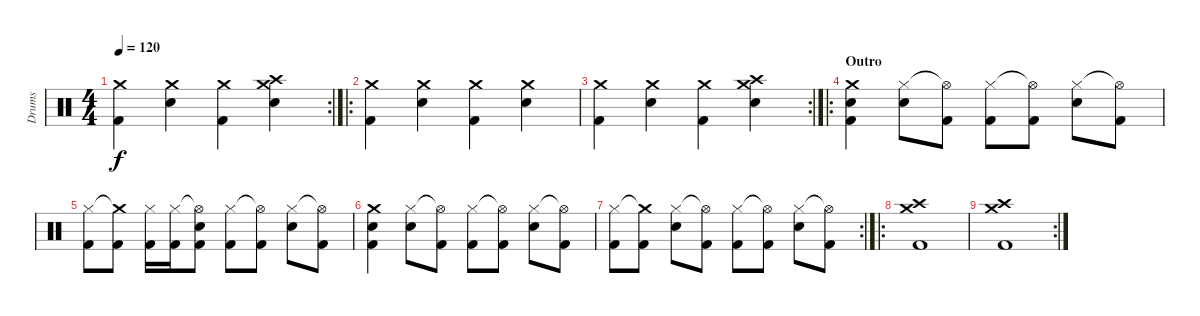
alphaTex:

\track ("Drums" "Drums") {instrument percussion}
\staff {score}
\articulation defaults
\rc 2
\ts (4 4)
\tempo 120
\clef neutral
\ks c
("Crash medium (hit)" "Kick (hit) 2").4{dy f} ("Crash medium (hit)" "Snare (hit) 2").4 ("Crash medium (hit)" "Kick (hit) 2").4 ("Crash high (hit)" "Crash medium (hit)" "Snare (hit) 2").4 |
\ro
("Crash medium (hit)" "Kick (hit) 2").4 ("Crash medium (hit)" "Snare (hit) 2").4 ("Crash medium (hit)" "Kick (hit) 2").4 ("Crash medium (hit)" "Snare (hit) 2").4 |
\rc 2
("Crash medium (hit)" "Kick (hit) 2").4 ("Crash medium (hit)" "Snare (hit) 2").4 ("Crash medium (hit)" "Kick (hit) 2").4 ("Crash high (hit)" "Crash medium (hit)" "Snare (hit) 2").4 |
\ro
\section ("" "Outro")
("Crash medium (hit)" "Snare (hit) 2" "Kick (hit) 2").4 ("Hi-Hat (closed)" "Snare (hit) 2").8 ("Hi-Hat (open)"{t} "Kick (hit) 2").8 ("Hi-Hat (closed)" "Kick (hit) 2").8 ("Hi-Hat (open)"{t} "Kick (hit) 2").8 ("Hi-Hat (closed)" "Snare (hit) 2").8 ("Hi-Hat (open)"{t} "Kick (hit) 2").8 |
("Hi-Hat (closed)" "Kick (hit) 2").8 ("Crash medium (hit)"{t} "Kick (hit) 2").8 ("Hi-Hat (closed)" "Kick (hit) 2").16 ("Hi-Hat (closed)" "Kick (hit) 2").16 ("Hi-Hat (open)"{t} "Snare (hit) 2" "Kick (hit) 2").8 ("Hi-Hat (closed)" "Kick (hit) 2").8 ("Hi-Hat (open)"{t} "Kick (hit) 2").8 ("Hi-Hat (closed)" "Snare (hit) 2").8 ("Hi-Hat (open)"{t} "Kick (hit) 2").8 |
("Crash medium (hit)" "Snare (hit) 2" "Kick (hit) 2").4 ("Hi-Hat (closed)" "Snare (hit) 2").8 ("Hi-Hat (open)"{t} "Kick (hit) 2").8 ("Hi-Hat (closed)" "Kick (hit) 2").8 ("Hi-Hat (open)"{t} "Kick (hit) 2").8 ("Hi-Hat (closed)" "Snare (hit) 2").8 ("Hi-Hat (open)"{t} "Kick (hit) 2").8 |
\rc 2
("Hi-Hat (closed)" "Kick (hit) 2").8 ("Crash medium (hit)"{t} "Kick (hit) 2").8 ("Hi-Hat (closed)" "Snare (hit) 2").8 ("Hi-Hat (open)"{t} "Kick (hit) 2").8 ("Hi-Hat (closed)" "Kick (hit) 2").8 ("Hi-Hat (open)"{t} "Kick (hit) 2").8 ("Hi-Hat (closed)" "Snare (hit) 2").8 ("Hi-Hat (open)"{t} "Kick (hit) 2").8 |
\ro
("Crash high (hit)" "Crash medium (hit)" "Kick (hit) 2").1 |
\rc 2
("Crash high (hit)" "Crash medium (hit)" "Kick (hit) 2").1
